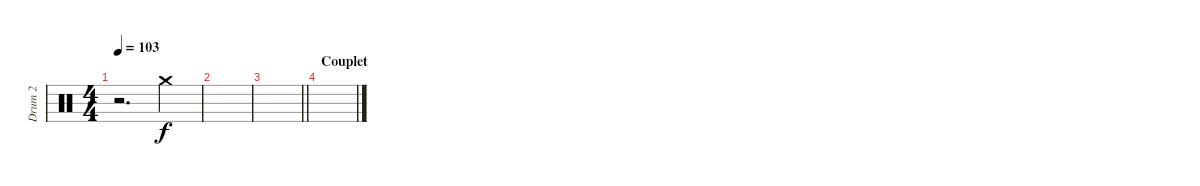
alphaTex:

\track ("Drum 2" "Drum 2") {instrument percussion}
\staff {score}
\articulation defaults
\ts (4 4)
\tempo 103
\clef neutral
\ks c
r.2{d dy f} "Crash medium (hit)".4 |
|
\barLineRight lightlight
|
\section ("" "Couplet")
